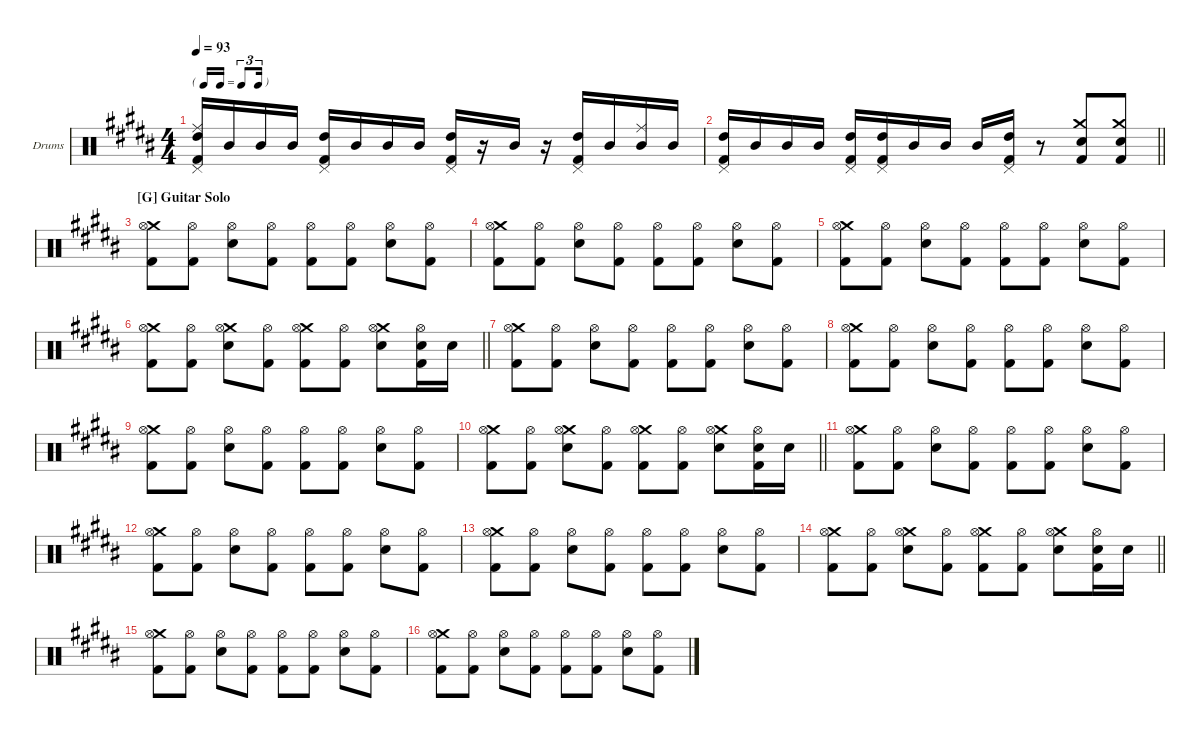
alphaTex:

\hideDynamics
\bracketExtendMode groupsimilarinstruments
\firstSystemTrackNameOrientation horizontal
\otherSystemsTrackNameOrientation horizontal
\track ("Drumkit" "Drums") {multiBarRest instrument percussion}
\staff {score}
\articulation defaults
\ts (4 4)
\tf triplet16th
\tempo 93
\clef neutral
\ks b
("Pedal Hi-Hat (hit)"{acc forcenatural} "Ride (middle)"{acc forcenatural} "High Tom (hit)"{acc forcenatural} "Kick (hit) 2"{acc forcenatural}).16{dy f} "Mid Tom (hit)"{acc forcenatural}.16{dy mp} "Mid Tom (hit)"{acc forcenatural}.16{dy mf} "Mid Tom (hit)"{acc forcenatural}.16{dy mp} ("Pedal Hi-Hat (hit)"{acc forcenatural} "High Tom (hit)"{acc forcenatural} "Kick (hit) 2"{acc forcenatural}).16{dy f} "Mid Tom (hit)"{acc forcenatural}.16{dy mp} "Mid Tom (hit)"{acc forcenatural}.16{dy mf} "Mid Tom (hit)"{acc forcenatural}.16{dy mp} ("Pedal Hi-Hat (hit)"{acc forcenatural} "High Tom (hit)"{acc forcenatural} "Kick (hit) 2"{acc forcenatural}).16{dy f} r.16 "Mid Tom (hit)"{acc forcenatural}.16{dy mf} r.16 ("Pedal Hi-Hat (hit)"{acc forcenatural} "High Tom (hit)"{acc forcenatural} "Kick (hit) 2"{acc forcenatural}).16{dy f} "Mid Tom (hit)"{acc forcenatural}.16{dy mp} ("Ride (middle)"{acc forcenatural} "Mid Tom (hit)"{acc forcenatural}).16{dy f} "Mid Tom (hit)"{acc forcenatural}.16{dy mp} |
\barLineRight lightlight
("Pedal Hi-Hat (hit)"{acc forcenatural} "High Tom (hit)"{acc forcenatural} "Kick (hit) 2"{acc forcenatural}).16{dy f} "Mid Tom (hit)"{acc forcenatural}.16{dy mp} "Mid Tom (hit)"{acc forcenatural}.16{dy mf} "Mid Tom (hit)"{acc forcenatural}.16{dy mp} ("Pedal Hi-Hat (hit)"{acc forcenatural} "High Tom (hit)"{acc forcenatural} "Kick (hit) 2"{acc forcenatural}).16{dy f} ("Pedal Hi-Hat (hit)"{acc forcenatural} "High Tom (hit)"{acc forcenatural} "Kick (hit) 2"{acc forcenatural}).16 "Mid Tom (hit)"{acc forcenatural}.16{dy mp} "Mid Tom (hit)"{acc forcenatural}.16{dy mf} "Mid Tom (hit)"{acc forcenatural}.16{dy mp} ("Pedal Hi-Hat (hit)"{acc forcenatural} "High Tom (hit)"{acc forcenatural} "Kick (hit) 2"{acc forcenatural}).16{dy f} r.8 ("Crash medium (hit)"{acc forcenatural} "Snare (hit) 2"{acc forcenatural} "Kick (hit) 2"{acc forcenatural}).8 ("Crash medium (hit)"{acc forcenatural} "Snare (hit) 2"{acc forcenatural} "Kick (hit) 2"{acc forcenatural}).8 |
\section ("G" "Guitar Solo")
("Crash medium (hit)"{acc forcenatural} "Hi-Hat (open)"{acc forcenatural} "Kick (hit) 2"{acc forcenatural}).8 ("Hi-Hat (open)"{acc forcenatural} "Kick (hit) 2"{acc forcenatural}).8 ("Hi-Hat (open)"{acc forcenatural} "Snare (hit) 2"{acc forcenatural}).8 ("Hi-Hat (open)"{acc forcenatural} "Kick (hit) 2"{acc forcenatural}).8 ("Hi-Hat (open)"{acc forcenatural} "Kick (hit) 2"{acc forcenatural}).8 ("Hi-Hat (open)"{acc forcenatural} "Kick (hit) 2"{acc forcenatural}).8 ("Hi-Hat (open)"{acc forcenatural} "Snare (hit) 2"{acc forcenatural}).8 ("Hi-Hat (open)"{acc forcenatural} "Kick (hit) 2"{acc forcenatural}).8 |
("Crash medium (hit)"{acc forcenatural} "Hi-Hat (open)"{acc forcenatural} "Kick (hit) 2"{acc forcenatural}).8 ("Hi-Hat (open)"{acc forcenatural} "Kick (hit) 2"{acc forcenatural}).8 ("Hi-Hat (open)"{acc forcenatural} "Snare (hit) 2"{acc forcenatural}).8 ("Hi-Hat (open)"{acc forcenatural} "Kick (hit) 2"{acc forcenatural}).8 ("Hi-Hat (open)"{acc forcenatural} "Kick (hit) 2"{acc forcenatural}).8 ("Hi-Hat (open)"{acc forcenatural} "Kick (hit) 2"{acc forcenatural}).8 ("Hi-Hat (open)"{acc forcenatural} "Snare (hit) 2"{acc forcenatural}).8 ("Hi-Hat (open)"{acc forcenatural} "Kick (hit) 2"{acc forcenatural}).8 |
("Crash medium (hit)"{acc forcenatural} "Hi-Hat (open)"{acc forcenatural} "Kick (hit) 2"{acc forcenatural}).8 ("Hi-Hat (open)"{acc forcenatural} "Kick (hit) 2"{acc forcenatural}).8 ("Hi-Hat (open)"{acc forcenatural} "Snare (hit) 2"{acc forcenatural}).8 ("Hi-Hat (open)"{acc forcenatural} "Kick (hit) 2"{acc forcenatural}).8 ("Hi-Hat (open)"{acc forcenatural} "Kick (hit) 2"{acc forcenatural}).8 ("Hi-Hat (open)"{acc forcenatural} "Kick (hit) 2"{acc forcenatural}).8 ("Hi-Hat (open)"{acc forcenatural} "Snare (hit) 2"{acc forcenatural}).8 ("Hi-Hat (open)"{acc forcenatural} "Kick (hit) 2"{acc forcenatural}).8 |
\barLineRight lightlight
("Crash medium (hit)"{acc forcenatural} "Hi-Hat (open)"{acc forcenatural} "Kick (hit) 2"{acc forcenatural}).8 ("Hi-Hat (open)"{acc forcenatural} "Kick (hit) 2"{acc forcenatural}).8 ("Crash medium (hit)"{acc forcenatural} "Hi-Hat (open)"{acc forcenatural} "Snare (hit) 2"{acc forcenatural}).8 ("Hi-Hat (open)"{acc forcenatural} "Kick (hit) 2"{acc forcenatural}).8 ("Crash medium (hit)"{acc forcenatural} "Hi-Hat (open)"{acc forcenatural} "Kick (hit) 2"{acc forcenatural}).8 ("Hi-Hat (open)"{acc forcenatural} "Kick (hit) 2"{acc forcenatural}).8 ("Crash medium (hit)"{acc forcenatural} "Hi-Hat (open)"{acc forcenatural} "Snare (hit) 2"{acc forcenatural}).8 ("Hi-Hat (open)"{acc forcenatural} "Snare (hit) 2"{acc forcenatural} "Kick (hit) 2"{acc forcenatural}).16 "Snare (hit) 2"{acc forcenatural}.16 |
("Crash medium (hit)"{acc forcenatural} "Hi-Hat (open)"{acc forcenatural} "Kick (hit) 2"{acc forcenatural}).8 ("Hi-Hat (open)"{acc forcenatural} "Kick (hit) 2"{acc forcenatural}).8 ("Hi-Hat (open)"{acc forcenatural} "Snare (hit) 2"{acc forcenatural}).8 ("Hi-Hat (open)"{acc forcenatural} "Kick (hit) 2"{acc forcenatural}).8 ("Hi-Hat (open)"{acc forcenatural} "Kick (hit) 2"{acc forcenatural}).8 ("Hi-Hat (open)"{acc forcenatural} "Kick (hit) 2"{acc forcenatural}).8 ("Hi-Hat (open)"{acc forcenatural} "Snare (hit) 2"{acc forcenatural}).8 ("Hi-Hat (open)"{acc forcenatural} "Kick (hit) 2"{acc forcenatural}).8 |
("Crash medium (hit)"{acc forcenatural} "Hi-Hat (open)"{acc forcenatural} "Kick (hit) 2"{acc forcenatural}).8 ("Hi-Hat (open)"{acc forcenatural} "Kick (hit) 2"{acc forcenatural}).8 ("Hi-Hat (open)"{acc forcenatural} "Snare (hit) 2"{acc forcenatural}).8 ("Hi-Hat (open)"{acc forcenatural} "Kick (hit) 2"{acc forcenatural}).8 ("Hi-Hat (open)"{acc forcenatural} "Kick (hit) 2"{acc forcenatural}).8 ("Hi-Hat (open)"{acc forcenatural} "Kick (hit) 2"{acc forcenatural}).8 ("Hi-Hat (open)"{acc forcenatural} "Snare (hit) 2"{acc forcenatural}).8 ("Hi-Hat (open)"{acc forcenatural} "Kick (hit) 2"{acc forcenatural}).8 |
("Crash medium (hit)"{acc forcenatural} "Hi-Hat (open)"{acc forcenatural} "Kick (hit) 2"{acc forcenatural}).8 ("Hi-Hat (open)"{acc forcenatural} "Kick (hit) 2"{acc forcenatural}).8 ("Hi-Hat (open)"{acc forcenatural} "Snare (hit) 2"{acc forcenatural}).8 ("Hi-Hat (open)"{acc forcenatural} "Kick (hit) 2"{acc forcenatural}).8 ("Hi-Hat (open)"{acc forcenatural} "Kick (hit) 2"{acc forcenatural}).8 ("Hi-Hat (open)"{acc forcenatural} "Kick (hit) 2"{acc forcenatural}).8 ("Hi-Hat (open)"{acc forcenatural} "Snare (hit) 2"{acc forcenatural}).8 ("Hi-Hat (open)"{acc forcenatural} "Kick (hit) 2"{acc forcenatural}).8 |
\barLineRight lightlight
("Crash medium (hit)"{acc forcenatural} "Hi-Hat (open)"{acc forcenatural} "Kick (hit) 2"{acc forcenatural}).8 ("Hi-Hat (open)"{acc forcenatural} "Kick (hit) 2"{acc forcenatural}).8 ("Crash medium (hit)"{acc forcenatural} "Hi-Hat (open)"{acc forcenatural} "Snare (hit) 2"{acc forcenatural}).8 ("Hi-Hat (open)"{acc forcenatural} "Kick (hit) 2"{acc forcenatural}).8 ("Crash medium (hit)"{acc forcenatural} "Hi-Hat (open)"{acc forcenatural} "Kick (hit) 2"{acc forcenatural}).8 ("Hi-Hat (open)"{acc forcenatural} "Kick (hit) 2"{acc forcenatural}).8 ("Crash medium (hit)"{acc forcenatural} "Hi-Hat (open)"{acc forcenatural} "Snare (hit) 2"{acc forcenatural}).8 ("Hi-Hat (open)"{acc forcenatural} "Snare (hit) 2"{acc forcenatural} "Kick (hit) 2"{acc forcenatural}).16 "Snare (hit) 2"{acc forcenatural}.16 |
("Crash medium (hit)"{acc forcenatural} "Hi-Hat (open)"{acc forcenatural} "Kick (hit) 2"{acc forcenatural}).8 ("Hi-Hat (open)"{acc forcenatural} "Kick (hit) 2"{acc forcenatural}).8 ("Hi-Hat (open)"{acc forcenatural} "Snare (hit) 2"{acc forcenatural}).8 ("Hi-Hat (open)"{acc forcenatural} "Kick (hit) 2"{acc forcenatural}).8 ("Hi-Hat (open)"{acc forcenatural} "Kick (hit) 2"{acc forcenatural}).8 ("Hi-Hat (open)"{acc forcenatural} "Kick (hit) 2"{acc forcenatural}).8 ("Hi-Hat (open)"{acc forcenatural} "Snare (hit) 2"{acc forcenatural}).8 ("Hi-Hat (open)"{acc forcenatural} "Kick (hit) 2"{acc forcenatural}).8 |
("Crash medium (hit)"{acc forcenatural} "Hi-Hat (open)"{acc forcenatural} "Kick (hit) 2"{acc forcenatural}).8 ("Hi-Hat (open)"{acc forcenatural} "Kick (hit) 2"{acc forcenatural}).8 ("Hi-Hat (open)"{acc forcenatural} "Snare (hit) 2"{acc forcenatural}).8 ("Hi-Hat (open)"{acc forcenatural} "Kick (hit) 2"{acc forcenatural}).8 ("Hi-Hat (open)"{acc forcenatural} "Kick (hit) 2"{acc forcenatural}).8 ("Hi-Hat (open)"{acc forcenatural} "Kick (hit) 2"{acc forcenatural}).8 ("Hi-Hat (open)"{acc forcenatural} "Snare (hit) 2"{acc forcenatural}).8 ("Hi-Hat (open)"{acc forcenatural} "Kick (hit) 2"{acc forcenatural}).8 |
("Crash medium (hit)"{acc forcenatural} "Hi-Hat (open)"{acc forcenatural} "Kick (hit) 2"{acc forcenatural}).8 ("Hi-Hat (open)"{acc forcenatural} "Kick (hit) 2"{acc forcenatural}).8 ("Hi-Hat (open)"{acc forcenatural} "Snare (hit) 2"{acc forcenatural}).8 ("Hi-Hat (open)"{acc forcenatural} "Kick (hit) 2"{acc forcenatural}).8 ("Hi-Hat (open)"{acc forcenatural} "Kick (hit) 2"{acc forcenatural}).8 ("Hi-Hat (open)"{acc forcenatural} "Kick (hit) 2"{acc forcenatural}).8 ("Hi-Hat (open)"{acc forcenatural} "Snare (hit) 2"{acc forcenatural}).8 ("Hi-Hat (open)"{acc forcenatural} "Kick (hit) 2"{acc forcenatural}).8 |
\barLineRight lightlight
("Crash medium (hit)"{acc forcenatural} "Hi-Hat (open)"{acc forcenatural} "Kick (hit) 2"{acc forcenatural}).8 ("Hi-Hat (open)"{acc forcenatural} "Kick (hit) 2"{acc forcenatural}).8 ("Crash medium (hit)"{acc forcenatural} "Hi-Hat (open)"{acc forcenatural} "Snare (hit) 2"{acc forcenatural}).8 ("Hi-Hat (open)"{acc forcenatural} "Kick (hit) 2"{acc forcenatural}).8 ("Crash medium (hit)"{acc forcenatural} "Hi-Hat (open)"{acc forcenatural} "Kick (hit) 2"{acc forcenatural}).8 ("Hi-Hat (open)"{acc forcenatural} "Kick (hit) 2"{acc forcenatural}).8 ("Crash medium (hit)"{acc forcenatural} "Hi-Hat (open)"{acc forcenatural} "Snare (hit) 2"{acc forcenatural}).8 ("Hi-Hat (open)"{acc forcenatural} "Snare (hit) 2"{acc forcenatural} "Kick (hit) 2"{acc forcenatural}).16 "Snare (hit) 2"{acc forcenatural}.16 |
("Crash medium (hit)"{acc forcenatural} "Hi-Hat (open)"{acc forcenatural} "Kick (hit) 2"{acc forcenatural}).8 ("Hi-Hat (open)"{acc forcenatural} "Kick (hit) 2"{acc forcenatural}).8 ("Hi-Hat (open)"{acc forcenatural} "Snare (hit) 2"{acc forcenatural}).8 ("Hi-Hat (open)"{acc forcenatural} "Kick (hit) 2"{acc forcenatural}).8 ("Hi-Hat (open)"{acc forcenatural} "Kick (hit) 2"{acc forcenatural}).8 ("Hi-Hat (open)"{acc forcenatural} "Kick (hit) 2"{acc forcenatural}).8 ("Hi-Hat (open)"{acc forcenatural} "Snare (hit) 2"{acc forcenatural}).8 ("Hi-Hat (open)"{acc forcenatural} "Kick (hit) 2"{acc forcenatural}).8 |
("Crash medium (hit)"{acc forcenatural} "Hi-Hat (open)"{acc forcenatural} "Kick (hit) 2"{acc forcenatural}).8 ("Hi-Hat (open)"{acc forcenatural} "Kick (hit) 2"{acc forcenatural}).8 ("Hi-Hat (open)"{acc forcenatural} "Snare (hit) 2"{acc forcenatural}).8 ("Hi-Hat (open)"{acc forcenatural} "Kick (hit) 2"{acc forcenatural}).8 ("Hi-Hat (open)"{acc forcenatural} "Kick (hit) 2"{acc forcenatural}).8 ("Hi-Hat (open)"{acc forcenatural} "Kick (hit) 2"{acc forcenatural}).8 ("Hi-Hat (open)"{acc forcenatural} "Snare (hit) 2"{acc forcenatural}).8 ("Hi-Hat (open)"{acc forcenatural} "Kick (hit) 2"{acc forcenatural}).8
